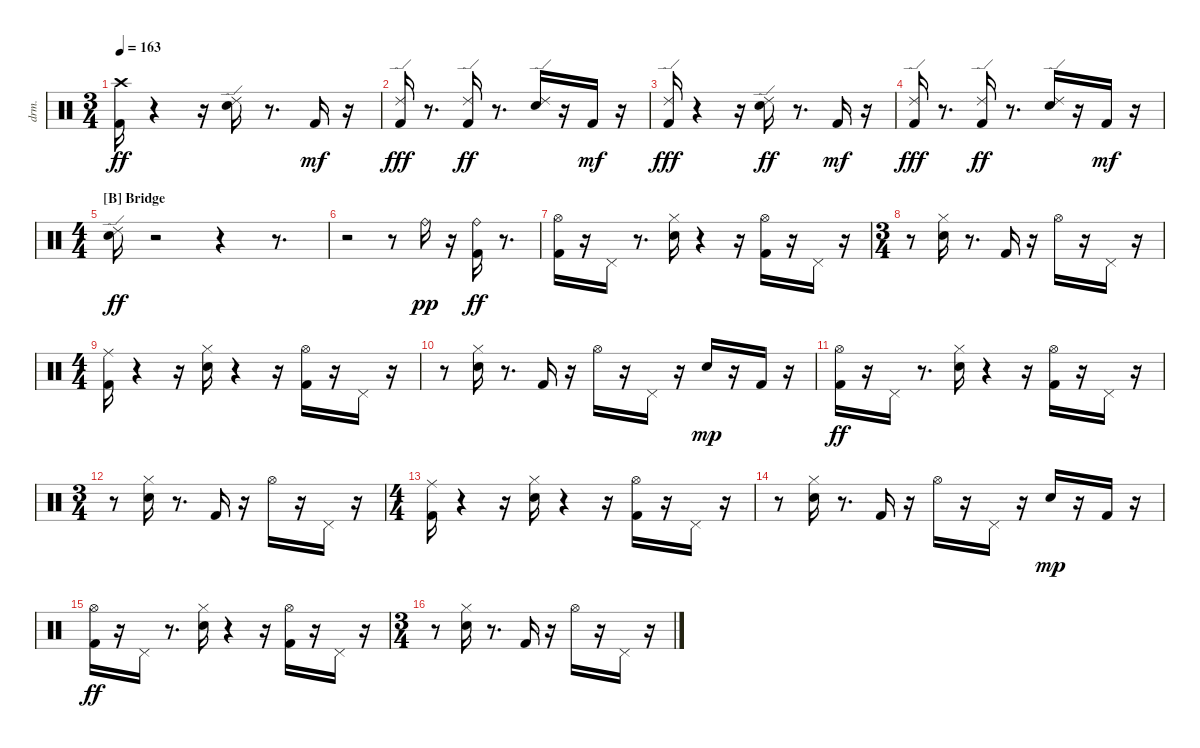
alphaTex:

\bracketExtendMode nobrackets
\track ("EZdrummer 3" "drm.") {instrument percussion}
\staff {score}
\articulation defaults
\ts (3 4)
\tempo 163
\clef neutral
\ks aminor
("Kick (hit) 2" "Crash high (hit)"{acc #}).16{dy ff} r.4 r.16 ("Snare (hit) 2" "Ride (edge) 2").16 r.8{d} "Kick (hit) 2".16{dy mf} r.16 |
("Kick (hit) 2" "Ride (edge) 2").16{dy fff} r.8{d} ("Kick (hit) 2" "Ride (edge) 2").16{dy ff} r.8{d} ("Snare (hit) 2" "Ride (edge) 2").16 r.16 "Kick (hit) 2".16{dy mf} r.16 |
("Kick (hit) 2" "Ride (edge) 2").16{dy fff} r.4 r.16 ("Snare (hit) 2" "Ride (edge) 2").16{dy ff} r.8{d} "Kick (hit) 2".16{dy mf} r.16 |
("Kick (hit) 2" "Ride (edge) 2").16{dy fff} r.8{d} ("Kick (hit) 2" "Ride (edge) 2").16{dy ff} r.8{d} ("Snare (hit) 2" "Ride (edge) 2").16 r.16 "Kick (hit) 2".16{dy mf} r.16 |
\ts (4 4)
\section ("B" "Bridge")
("Snare (hit) 2" "Ride (edge) 2").16{dy ff} r.2 r.4 r.8{d} |
r.2 r.8 "Ride (bell)".16{dy pp} r.16 ("Kick (hit) 2" "Ride (bell)").16{dy ff} r.8{d} |
("Kick (hit) 2" "Hi-Hat (open)"{acc #}).16 r.16 "Pedal Hi-Hat (hit)"{acc #}.16 r.8{d} ("Snare (hit) 2" "Hi-Hat (closed)"{acc #}).16 r.4 r.16 ("Kick (hit) 2" "Hi-Hat (open)"{acc #}).16 r.16 "Pedal Hi-Hat (hit)"{acc #}.16 r.16 |
\ts (3 4)
r.8 ("Snare (hit) 2" "Hi-Hat (closed)"{acc #}).16 r.8{d} "Kick (hit) 2".16 r.16 "Hi-Hat (open)"{acc #}.16 r.16 "Pedal Hi-Hat (hit)"{acc #}.16 r.16 |
\ts (4 4)
("Kick (hit) 2" "Ride (middle)"{acc #}).16 r.4 r.16 ("Snare (hit) 2" "Hi-Hat (closed)"{acc #}).16 r.4 r.16 ("Kick (hit) 2" "Hi-Hat (open)"{acc #}).16 r.16 "Pedal Hi-Hat (hit)"{acc #}.16 r.16 |
r.8 ("Snare (hit) 2" "Hi-Hat (closed)"{acc #}).16 r.8{d} "Kick (hit) 2".16 r.16 "Hi-Hat (open)"{acc #}.16 r.16 "Pedal Hi-Hat (hit)"{acc #}.16 r.16 "Snare (hit) 2".16{dy mp} r.16 "Kick (hit) 2".16 r.16 |
("Kick (hit) 2" "Hi-Hat (open)"{acc #}).16{dy ff} r.16 "Pedal Hi-Hat (hit)"{acc #}.16 r.8{d} ("Snare (hit) 2" "Hi-Hat (closed)"{acc #}).16 r.4 r.16 ("Kick (hit) 2" "Hi-Hat (open)"{acc #}).16 r.16 "Pedal Hi-Hat (hit)"{acc #}.16 r.16 |
\ts (3 4)
r.8 ("Snare (hit) 2" "Hi-Hat (closed)"{acc #}).16 r.8{d} "Kick (hit) 2".16 r.16 "Hi-Hat (open)"{acc #}.16 r.16 "Pedal Hi-Hat (hit)"{acc #}.16 r.16 |
\ts (4 4)
("Kick (hit) 2" "Ride (middle)"{acc #}).16 r.4 r.16 ("Snare (hit) 2" "Hi-Hat (closed)"{acc #}).16 r.4 r.16 ("Kick (hit) 2" "Hi-Hat (open)"{acc #}).16 r.16 "Pedal Hi-Hat (hit)"{acc #}.16 r.16 |
r.8 ("Snare (hit) 2" "Hi-Hat (closed)"{acc #}).16 r.8{d} "Kick (hit) 2".16 r.16 "Hi-Hat (open)"{acc #}.16 r.16 "Pedal Hi-Hat (hit)"{acc #}.16 r.16 "Snare (hit) 2".16{dy mp} r.16 "Kick (hit) 2".16 r.16 |
("Kick (hit) 2" "Hi-Hat (open)"{acc #}).16{dy ff} r.16 "Pedal Hi-Hat (hit)"{acc #}.16 r.8{d} ("Snare (hit) 2" "Hi-Hat (closed)"{acc #}).16 r.4 r.16 ("Kick (hit) 2" "Hi-Hat (open)"{acc #}).16 r.16 "Pedal Hi-Hat (hit)"{acc #}.16 r.16 |
\ts (3 4)
r.8 ("Snare (hit) 2" "Hi-Hat (closed)"{acc #}).16 r.8{d} "Kick (hit) 2".16 r.16 "Hi-Hat (open)"{acc #}.16 r.16 "Pedal Hi-Hat (hit)"{acc #}.16 r.16
